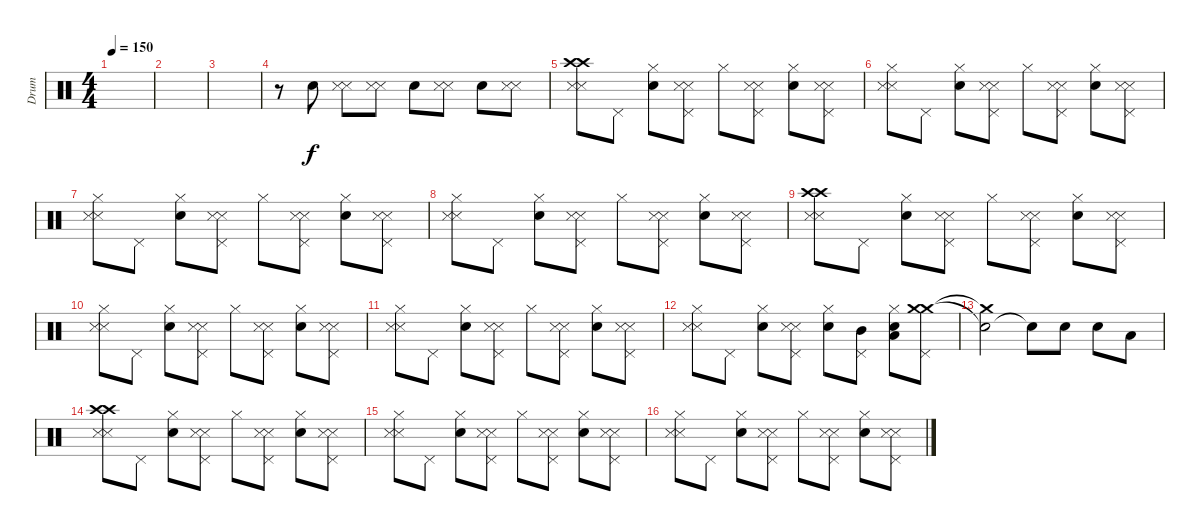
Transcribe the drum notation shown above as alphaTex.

\track ("Drum" "Drum") {instrument percussion}
\staff {score}
\articulation defaults
\ts (4 4)
\tempo 150
\clef neutral
\ks c
|
|
|
r.8 "Electric Snare (hit)".8 ("Metronome (hit)" "Metronome (hit)").8 ("Metronome (hit)" "Metronome (hit)").8 "Electric Snare (hit)".8 ("Metronome (hit)" "Metronome (hit)").8 "Electric Snare (hit)".8 ("Metronome (hit)" "Metronome (hit)").8 |
("Metronome (hit)" "Metronome (hit)" "Crash high (hit)" "Crash high (hit)").8 "Pedal Hi-Hat (hit)".8 ("Electric Snare (hit)" "Hi-Hat (closed)").8 ("Metronome (hit)" "Metronome (hit)" "Pedal Hi-Hat (hit)").8 "Hi-Hat (closed)".8 ("Metronome (hit)" "Metronome (hit)" "Pedal Hi-Hat (hit)").8 ("Electric Snare (hit)" "Hi-Hat (closed)").8 ("Metronome (hit)" "Metronome (hit)" "Pedal Hi-Hat (hit)").8 |
("Metronome (hit)" "Metronome (hit)" "Hi-Hat (closed)").8 "Pedal Hi-Hat (hit)".8 ("Electric Snare (hit)" "Hi-Hat (closed)").8 ("Metronome (hit)" "Metronome (hit)" "Pedal Hi-Hat (hit)").8 "Hi-Hat (closed)".8 ("Metronome (hit)" "Metronome (hit)" "Pedal Hi-Hat (hit)").8 ("Electric Snare (hit)" "Hi-Hat (closed)").8 ("Metronome (hit)" "Metronome (hit)" "Pedal Hi-Hat (hit)").8 |
("Metronome (hit)" "Metronome (hit)" "Hi-Hat (closed)").8 "Pedal Hi-Hat (hit)".8 ("Electric Snare (hit)" "Hi-Hat (closed)").8 ("Metronome (hit)" "Metronome (hit)" "Pedal Hi-Hat (hit)").8 "Hi-Hat (closed)".8 ("Metronome (hit)" "Metronome (hit)" "Pedal Hi-Hat (hit)").8 ("Electric Snare (hit)" "Hi-Hat (closed)").8 ("Metronome (hit)" "Metronome (hit)" "Pedal Hi-Hat (hit)").8 |
("Metronome (hit)" "Metronome (hit)" "Hi-Hat (closed)").8 "Pedal Hi-Hat (hit)".8 ("Electric Snare (hit)" "Hi-Hat (closed)").8 ("Metronome (hit)" "Metronome (hit)" "Pedal Hi-Hat (hit)").8 "Hi-Hat (closed)".8 ("Metronome (hit)" "Metronome (hit)" "Pedal Hi-Hat (hit)").8 ("Electric Snare (hit)" "Hi-Hat (closed)").8 ("Metronome (hit)" "Metronome (hit)" "Pedal Hi-Hat (hit)").8 |
("Metronome (hit)" "Metronome (hit)" "Crash high (hit)" "Crash high (hit)").8 "Pedal Hi-Hat (hit)".8 ("Electric Snare (hit)" "Hi-Hat (closed)").8 ("Metronome (hit)" "Metronome (hit)" "Pedal Hi-Hat (hit)").8 "Hi-Hat (closed)".8 ("Metronome (hit)" "Metronome (hit)" "Pedal Hi-Hat (hit)").8 ("Electric Snare (hit)" "Hi-Hat (closed)").8 ("Metronome (hit)" "Metronome (hit)" "Pedal Hi-Hat (hit)").8 |
("Metronome (hit)" "Metronome (hit)" "Hi-Hat (closed)").8 "Pedal Hi-Hat (hit)".8 ("Electric Snare (hit)" "Hi-Hat (closed)").8 ("Metronome (hit)" "Metronome (hit)" "Pedal Hi-Hat (hit)").8 "Hi-Hat (closed)".8 ("Metronome (hit)" "Metronome (hit)" "Pedal Hi-Hat (hit)").8 ("Electric Snare (hit)" "Hi-Hat (closed)").8 ("Metronome (hit)" "Metronome (hit)" "Pedal Hi-Hat (hit)").8 |
("Metronome (hit)" "Metronome (hit)" "Hi-Hat (closed)").8 "Pedal Hi-Hat (hit)".8 ("Electric Snare (hit)" "Hi-Hat (closed)").8 ("Metronome (hit)" "Metronome (hit)" "Pedal Hi-Hat (hit)").8 "Hi-Hat (closed)".8 ("Metronome (hit)" "Metronome (hit)" "Pedal Hi-Hat (hit)").8 ("Electric Snare (hit)" "Hi-Hat (closed)").8 ("Metronome (hit)" "Metronome (hit)" "Pedal Hi-Hat (hit)").8 |
("Metronome (hit)" "Metronome (hit)" "Hi-Hat (closed)").8 "Pedal Hi-Hat (hit)".8 ("Electric Snare (hit)" "Hi-Hat (closed)").8 ("Metronome (hit)" "Metronome (hit)" "Pedal Hi-Hat (hit)").8 ("Electric Snare (hit)" "Hi-Hat (closed)").8 ("Mid Tom (hit)" "Pedal Hi-Hat (hit)").8 ("Electric Snare (hit)" "Low Tom (hit)" "Hi-Hat (closed)").8 ("Crash medium (hit)" "Crash medium (hit)" "Pedal Hi-Hat (hit)").8 |
("Electric Snare (hit)"{t} "Crash medium (hit)"{t}).2 "Snare (hit)"{t}.8 "Electric Snare (hit)".8 "Electric Snare (hit)".8 "Low Tom (hit)".8 |
("Metronome (hit)" "Metronome (hit)" "Crash high (hit)" "Crash high (hit)").8 "Pedal Hi-Hat (hit)".8 ("Electric Snare (hit)" "Hi-Hat (closed)").8 ("Metronome (hit)" "Metronome (hit)" "Pedal Hi-Hat (hit)").8 "Hi-Hat (closed)".8 ("Metronome (hit)" "Metronome (hit)" "Pedal Hi-Hat (hit)").8 ("Electric Snare (hit)" "Hi-Hat (closed)").8 ("Metronome (hit)" "Metronome (hit)" "Pedal Hi-Hat (hit)").8 |
("Metronome (hit)" "Metronome (hit)" "Hi-Hat (closed)").8 "Pedal Hi-Hat (hit)".8 ("Electric Snare (hit)" "Hi-Hat (closed)").8 ("Metronome (hit)" "Metronome (hit)" "Pedal Hi-Hat (hit)").8 "Hi-Hat (closed)".8 ("Metronome (hit)" "Metronome (hit)" "Pedal Hi-Hat (hit)").8 ("Electric Snare (hit)" "Hi-Hat (closed)").8 ("Metronome (hit)" "Metronome (hit)" "Pedal Hi-Hat (hit)").8 |
("Metronome (hit)" "Metronome (hit)" "Hi-Hat (closed)").8 "Pedal Hi-Hat (hit)".8 ("Electric Snare (hit)" "Hi-Hat (closed)").8 ("Metronome (hit)" "Metronome (hit)" "Pedal Hi-Hat (hit)").8 "Hi-Hat (closed)".8 ("Metronome (hit)" "Metronome (hit)" "Pedal Hi-Hat (hit)").8 ("Electric Snare (hit)" "Hi-Hat (closed)").8 ("Metronome (hit)" "Metronome (hit)" "Pedal Hi-Hat (hit)").8
